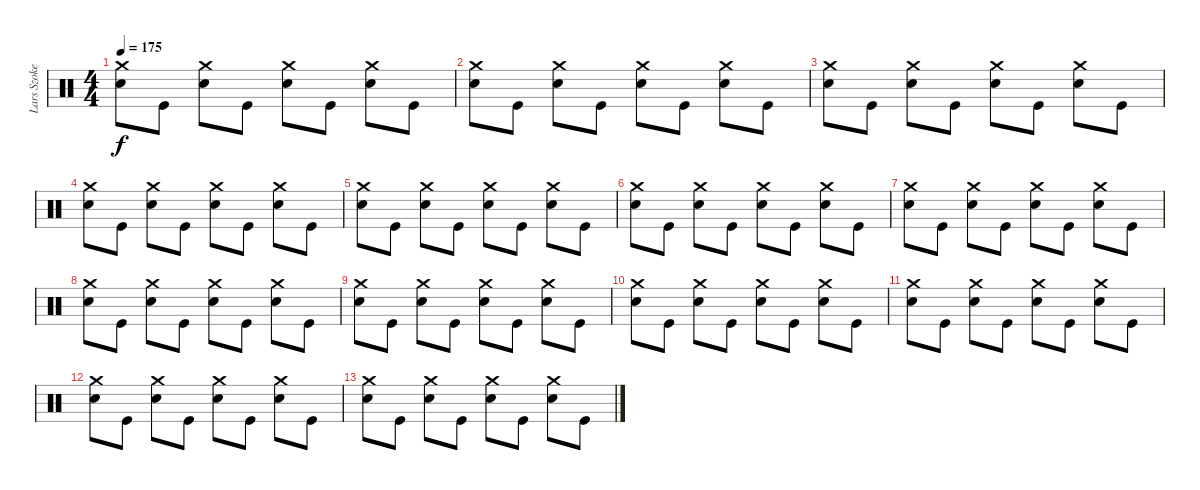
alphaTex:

\track ("Lars Szoke" "Lars Szoke") {instrument percussion}
\staff {score}
\articulation defaults
\ts (4 4)
\tempo 175
\clef neutral
\ks c
("Crash medium (hit)" "Electric Snare (hit)").8{dy f volume 11} "Kick (hit)".8 ("Crash medium (hit)" "Electric Snare (hit)").8 "Kick (hit)".8 ("Crash medium (hit)" "Electric Snare (hit)").8 "Kick (hit)".8 ("Crash medium (hit)" "Electric Snare (hit)").8 "Kick (hit)".8 |
("Crash medium (hit)" "Electric Snare (hit)").8{volume 11} "Kick (hit)".8 ("Crash medium (hit)" "Electric Snare (hit)").8 "Kick (hit)".8 ("Crash medium (hit)" "Electric Snare (hit)").8 "Kick (hit)".8 ("Crash medium (hit)" "Electric Snare (hit)").8 "Kick (hit)".8 |
("Crash medium (hit)" "Electric Snare (hit)").8{volume 10} "Kick (hit)".8 ("Crash medium (hit)" "Electric Snare (hit)").8 "Kick (hit)".8 ("Crash medium (hit)" "Electric Snare (hit)").8 "Kick (hit)".8 ("Crash medium (hit)" "Electric Snare (hit)").8 "Kick (hit)".8 |
("Crash medium (hit)" "Electric Snare (hit)").8{volume 9} "Kick (hit)".8 ("Crash medium (hit)" "Electric Snare (hit)").8 "Kick (hit)".8 ("Crash medium (hit)" "Electric Snare (hit)").8 "Kick (hit)".8 ("Crash medium (hit)" "Electric Snare (hit)").8 "Kick (hit)".8 |
("Crash medium (hit)" "Electric Snare (hit)").8{volume 8} "Kick (hit)".8 ("Crash medium (hit)" "Electric Snare (hit)").8 "Kick (hit)".8 ("Crash medium (hit)" "Electric Snare (hit)").8 "Kick (hit)".8 ("Crash medium (hit)" "Electric Snare (hit)").8 "Kick (hit)".8 |
("Crash medium (hit)" "Electric Snare (hit)").8{volume 7} "Kick (hit)".8 ("Crash medium (hit)" "Electric Snare (hit)").8 "Kick (hit)".8 ("Crash medium (hit)" "Electric Snare (hit)").8 "Kick (hit)".8 ("Crash medium (hit)" "Electric Snare (hit)").8 "Kick (hit)".8 |
("Crash medium (hit)" "Electric Snare (hit)").8{volume 6} "Kick (hit)".8 ("Crash medium (hit)" "Electric Snare (hit)").8 "Kick (hit)".8 ("Crash medium (hit)" "Electric Snare (hit)").8 "Kick (hit)".8 ("Crash medium (hit)" "Electric Snare (hit)").8 "Kick (hit)".8 |
("Crash medium (hit)" "Electric Snare (hit)").8{volume 5} "Kick (hit)".8 ("Crash medium (hit)" "Electric Snare (hit)").8 "Kick (hit)".8 ("Crash medium (hit)" "Electric Snare (hit)").8 "Kick (hit)".8 ("Crash medium (hit)" "Electric Snare (hit)").8 "Kick (hit)".8 |
("Crash medium (hit)" "Electric Snare (hit)").8{volume 4} "Kick (hit)".8 ("Crash medium (hit)" "Electric Snare (hit)").8 "Kick (hit)".8 ("Crash medium (hit)" "Electric Snare (hit)").8 "Kick (hit)".8 ("Crash medium (hit)" "Electric Snare (hit)").8 "Kick (hit)".8 |
("Crash medium (hit)" "Electric Snare (hit)").8{volume 3} "Kick (hit)".8 ("Crash medium (hit)" "Electric Snare (hit)").8 "Kick (hit)".8 ("Crash medium (hit)" "Electric Snare (hit)").8 "Kick (hit)".8 ("Crash medium (hit)" "Electric Snare (hit)").8 "Kick (hit)".8 |
("Crash medium (hit)" "Electric Snare (hit)").8{volume 2} "Kick (hit)".8 ("Crash medium (hit)" "Electric Snare (hit)").8 "Kick (hit)".8 ("Crash medium (hit)" "Electric Snare (hit)").8 "Kick (hit)".8 ("Crash medium (hit)" "Electric Snare (hit)").8 "Kick (hit)".8 |
("Crash medium (hit)" "Electric Snare (hit)").8{volume 1} "Kick (hit)".8 ("Crash medium (hit)" "Electric Snare (hit)").8 "Kick (hit)".8 ("Crash medium (hit)" "Electric Snare (hit)").8 "Kick (hit)".8 ("Crash medium (hit)" "Electric Snare (hit)").8 "Kick (hit)".8 |
("Crash medium (hit)" "Electric Snare (hit)").8{volume 0} "Kick (hit)".8 ("Crash medium (hit)" "Electric Snare (hit)").8 "Kick (hit)".8 ("Crash medium (hit)" "Electric Snare (hit)").8 "Kick (hit)".8 ("Crash medium (hit)" "Electric Snare (hit)").8 "Kick (hit)".8
